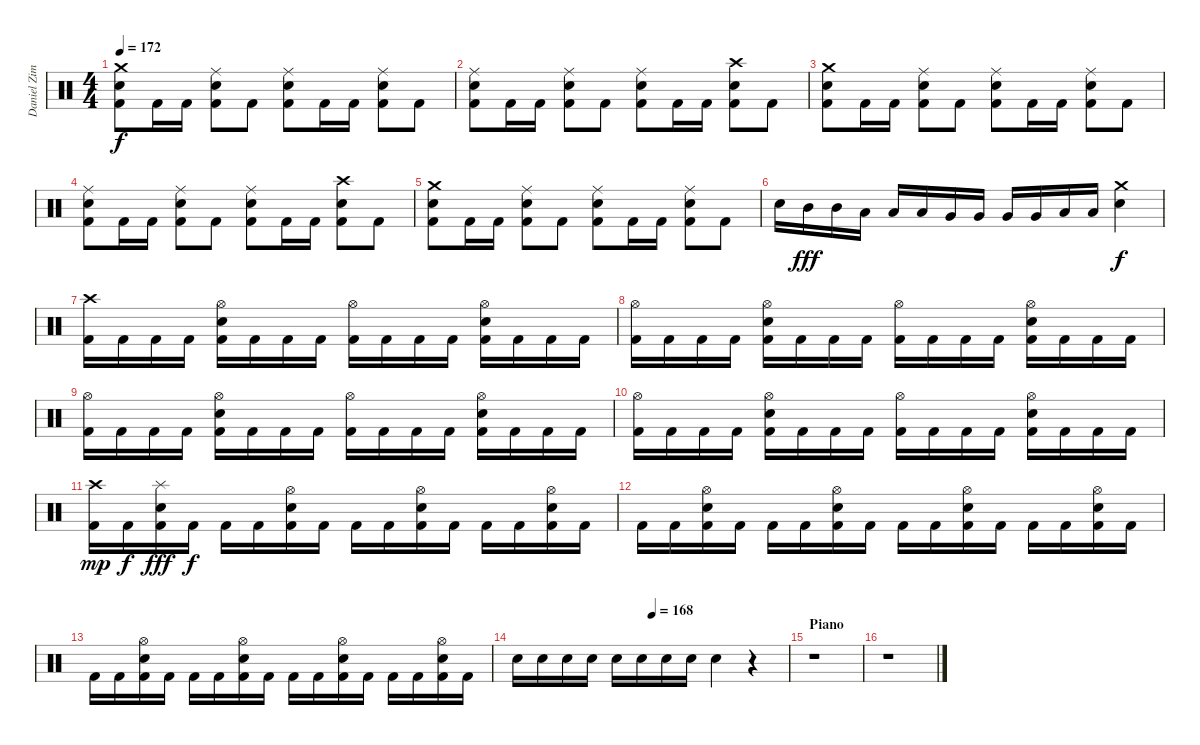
\track ("Daniel Zimmermann - Drums" "Daniel Zim") {instrument percussion}
\staff {score}
\articulation defaults
\ts (4 4)
\tempo 172
\clef neutral
\ks c
("Kick (hit) 2" "Electric Snare (hit)" "Crash medium (hit)").8{dy f} "Kick (hit) 2".16 "Kick (hit) 2".16 ("Kick (hit) 2" "Electric Snare (hit)" "Ride (middle)").8 "Kick (hit) 2".8 ("Kick (hit) 2" "Electric Snare (hit)" "Ride (middle)").8 "Kick (hit) 2".16 "Kick (hit) 2".16 ("Kick (hit) 2" "Electric Snare (hit)" "Ride (middle)").8 "Kick (hit) 2".8 |
("Kick (hit) 2" "Electric Snare (hit)" "Ride (middle)").8 "Kick (hit) 2".16 "Kick (hit) 2".16 ("Kick (hit) 2" "Electric Snare (hit)" "Ride (middle)").8 "Kick (hit) 2".8 ("Kick (hit) 2" "Electric Snare (hit)" "Ride (middle)").8 "Kick (hit) 2".16 "Kick (hit) 2".16 ("Kick (hit) 2" "Electric Snare (hit)" "Crash high (hit)").8 "Kick (hit) 2".8 |
("Kick (hit) 2" "Electric Snare (hit)" "Crash medium (hit)").8 "Kick (hit) 2".16 "Kick (hit) 2".16 ("Kick (hit) 2" "Electric Snare (hit)" "Ride (middle)").8 "Kick (hit) 2".8 ("Kick (hit) 2" "Electric Snare (hit)" "Ride (middle)").8 "Kick (hit) 2".16 "Kick (hit) 2".16 ("Kick (hit) 2" "Electric Snare (hit)" "Ride (middle)").8 "Kick (hit) 2".8 |
("Kick (hit) 2" "Electric Snare (hit)" "Ride (middle)").8 "Kick (hit) 2".16 "Kick (hit) 2".16 ("Kick (hit) 2" "Electric Snare (hit)" "Ride (middle)").8 "Kick (hit) 2".8 ("Kick (hit) 2" "Electric Snare (hit)" "Ride (middle)").8 "Kick (hit) 2".16 "Kick (hit) 2".16 ("Kick (hit) 2" "Electric Snare (hit)" "Crash high (hit)").8 "Kick (hit) 2".8 |
("Kick (hit) 2" "Electric Snare (hit)" "Crash medium (hit)").8 "Kick (hit) 2".16 "Kick (hit) 2".16 ("Kick (hit) 2" "Electric Snare (hit)" "Ride (middle)").8 "Kick (hit) 2".8 ("Kick (hit) 2" "Electric Snare (hit)" "Ride (middle)").8 "Kick (hit) 2".16 "Kick (hit) 2".16 ("Kick (hit) 2" "Electric Snare (hit)" "Ride (middle)").8 "Kick (hit) 2".8 |
"Electric Snare (hit)".16 "Mid Tom (hit)".16{dy fff} "Mid Tom (hit)".16 "Low Tom (hit)".16 "Low Tom (hit)".16 "Low Tom (hit)".16 "Very Low Tom (hit)".16 "Very Low Tom (hit)".16 "Very Low Tom (hit)".16 "Very Low Tom (hit)".16 "Low Floor Tom (hit)".16 "Low Floor Tom (hit)".16 ("Electric Snare (hit)" "Crash medium (hit)").4{dy f} |
("Kick (hit) 2" "Crash high (hit)").16 "Kick (hit) 2".16 "Kick (hit) 2".16 "Kick (hit) 2".16 ("Kick (hit) 2" "Electric Snare (hit)" "Hi-Hat (open)").16 "Kick (hit) 2".16 "Kick (hit) 2".16 "Kick (hit) 2".16 ("Kick (hit) 2" "Hi-Hat (open)").16 "Kick (hit) 2".16 "Kick (hit) 2".16 "Kick (hit) 2".16 ("Kick (hit) 2" "Electric Snare (hit)" "Hi-Hat (open)").16 "Kick (hit) 2".16 "Kick (hit) 2".16 "Kick (hit) 2".16 |
("Kick (hit) 2" "Hi-Hat (open)").16 "Kick (hit) 2".16 "Kick (hit) 2".16 "Kick (hit) 2".16 ("Kick (hit) 2" "Electric Snare (hit)" "Hi-Hat (open)").16 "Kick (hit) 2".16 "Kick (hit) 2".16 "Kick (hit) 2".16 ("Kick (hit) 2" "Hi-Hat (open)").16 "Kick (hit) 2".16 "Kick (hit) 2".16 "Kick (hit) 2".16 ("Kick (hit) 2" "Electric Snare (hit)" "Hi-Hat (open)").16 "Kick (hit) 2".16 "Kick (hit) 2".16 "Kick (hit) 2".16 |
("Kick (hit) 2" "Hi-Hat (open)").16 "Kick (hit) 2".16 "Kick (hit) 2".16 "Kick (hit) 2".16 ("Kick (hit) 2" "Electric Snare (hit)" "Hi-Hat (open)").16 "Kick (hit) 2".16 "Kick (hit) 2".16 "Kick (hit) 2".16 ("Kick (hit) 2" "Hi-Hat (open)").16 "Kick (hit) 2".16 "Kick (hit) 2".16 "Kick (hit) 2".16 ("Kick (hit) 2" "Electric Snare (hit)" "Hi-Hat (open)").16 "Kick (hit) 2".16 "Kick (hit) 2".16 "Kick (hit) 2".16 |
("Kick (hit) 2" "Hi-Hat (open)").16 "Kick (hit) 2".16 "Kick (hit) 2".16 "Kick (hit) 2".16 ("Kick (hit) 2" "Electric Snare (hit)" "Hi-Hat (open)").16 "Kick (hit) 2".16 "Kick (hit) 2".16 "Kick (hit) 2".16 ("Kick (hit) 2" "Hi-Hat (open)").16 "Kick (hit) 2".16 "Kick (hit) 2".16 "Kick (hit) 2".16 ("Kick (hit) 2" "Electric Snare (hit)" "Hi-Hat (open)").16 "Kick (hit) 2".16 "Kick (hit) 2".16 "Kick (hit) 2".16 |
("Kick (hit) 2" "Crash high (hit)").16{dy mp} "Kick (hit) 2".16{dy f} ("Kick (hit) 2" "Electric Snare (hit)" "Splash (hit)").16{dy fff} "Kick (hit) 2".16{dy f} "Kick (hit) 2".16 "Kick (hit) 2".16 ("Kick (hit) 2" "Electric Snare (hit)" "Hi-Hat (open)").16 "Kick (hit) 2".16 "Kick (hit) 2".16 "Kick (hit) 2".16 ("Kick (hit) 2" "Electric Snare (hit)" "Hi-Hat (open)").16 "Kick (hit) 2".16 "Kick (hit) 2".16 "Kick (hit) 2".16 ("Kick (hit) 2" "Electric Snare (hit)" "Hi-Hat (open)").16 "Kick (hit) 2".16 |
"Kick (hit) 2".16 "Kick (hit) 2".16 ("Kick (hit) 2" "Electric Snare (hit)" "Hi-Hat (open)").16 "Kick (hit) 2".16 "Kick (hit) 2".16 "Kick (hit) 2".16 ("Kick (hit) 2" "Electric Snare (hit)" "Hi-Hat (open)").16 "Kick (hit) 2".16 "Kick (hit) 2".16 "Kick (hit) 2".16 ("Kick (hit) 2" "Electric Snare (hit)" "Hi-Hat (open)").16 "Kick (hit) 2".16 "Kick (hit) 2".16 "Kick (hit) 2".16 ("Kick (hit) 2" "Electric Snare (hit)" "Hi-Hat (open)").16 "Kick (hit) 2".16 |
"Kick (hit) 2".16 "Kick (hit) 2".16 ("Kick (hit) 2" "Electric Snare (hit)" "Hi-Hat (open)").16 "Kick (hit) 2".16 "Kick (hit) 2".16 "Kick (hit) 2".16 ("Kick (hit) 2" "Electric Snare (hit)" "Hi-Hat (open)").16 "Kick (hit) 2".16 "Kick (hit) 2".16 "Kick (hit) 2".16 ("Kick (hit) 2" "Electric Snare (hit)" "Hi-Hat (open)").16 "Kick (hit) 2".16 "Kick (hit) 2".16 "Kick (hit) 2".16 ("Kick (hit) 2" "Electric Snare (hit)" "Hi-Hat (open)").16 "Kick (hit) 2".16 |
\tempo (168 0.5)
"Electric Snare (hit)".16 "Electric Snare (hit)".16 "Electric Snare (hit)".16 "Electric Snare (hit)".16 "Electric Snare (hit)".16 "Electric Snare (hit)".16 "Electric Snare (hit)".16 "Electric Snare (hit)".16 "Electric Snare (hit)".4 r.4 |
\section ("" "Piano")
r.1 |
r.1
